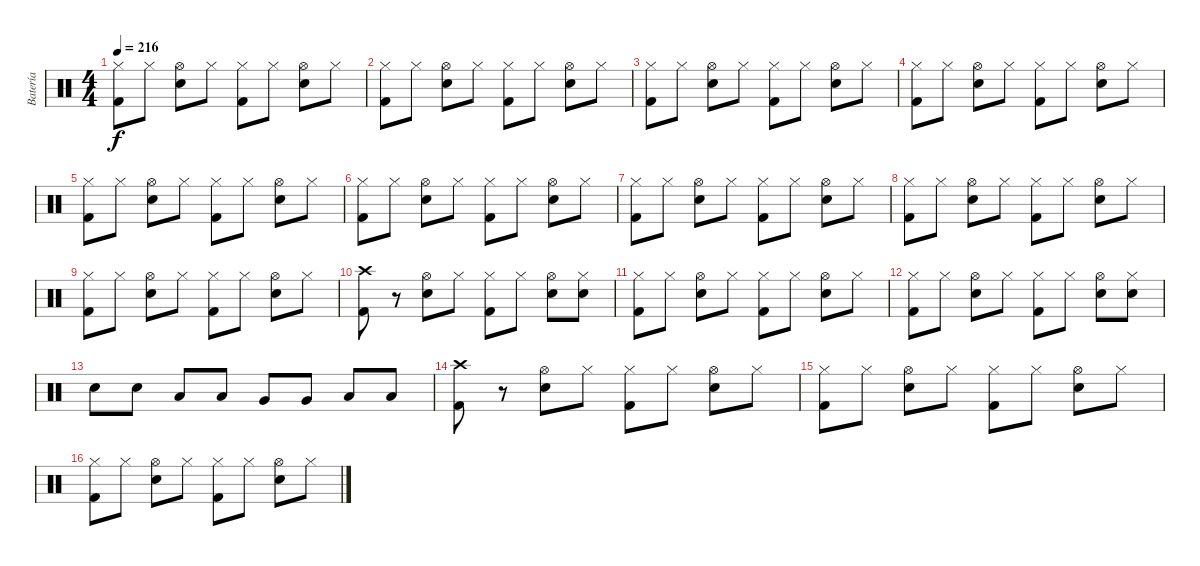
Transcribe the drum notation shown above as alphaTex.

\track ("Batería" "Batería") {instrument percussion}
\staff {score}
\articulation defaults
\ts (4 4)
\tempo 216
\clef neutral
\ks c
("Kick (hit) 2" "Hi-Hat (closed)").8{dy f} "Hi-Hat (closed)".8 ("Electric Snare (hit)" "Hi-Hat (open)").8 "Hi-Hat (closed)".8 ("Kick (hit) 2" "Hi-Hat (closed)").8 "Hi-Hat (closed)".8 ("Electric Snare (hit)" "Hi-Hat (open)").8 "Hi-Hat (closed)".8 |
("Kick (hit) 2" "Hi-Hat (closed)").8 "Hi-Hat (closed)".8 ("Electric Snare (hit)" "Hi-Hat (open)").8 "Hi-Hat (closed)".8 ("Kick (hit) 2" "Hi-Hat (closed)").8 "Hi-Hat (closed)".8 ("Electric Snare (hit)" "Hi-Hat (open)").8 "Hi-Hat (closed)".8 |
("Kick (hit) 2" "Hi-Hat (closed)").8 "Hi-Hat (closed)".8 ("Electric Snare (hit)" "Hi-Hat (open)").8 "Hi-Hat (closed)".8 ("Kick (hit) 2" "Hi-Hat (closed)").8 "Hi-Hat (closed)".8 ("Electric Snare (hit)" "Hi-Hat (open)").8 "Hi-Hat (closed)".8 |
("Kick (hit) 2" "Hi-Hat (closed)").8 "Hi-Hat (closed)".8 ("Electric Snare (hit)" "Hi-Hat (open)").8 "Hi-Hat (closed)".8 ("Kick (hit) 2" "Hi-Hat (closed)").8 "Hi-Hat (closed)".8 ("Electric Snare (hit)" "Hi-Hat (open)").8 "Hi-Hat (closed)".8 |
("Kick (hit) 2" "Hi-Hat (closed)").8 "Hi-Hat (closed)".8 ("Electric Snare (hit)" "Hi-Hat (open)").8 "Hi-Hat (closed)".8 ("Kick (hit) 2" "Hi-Hat (closed)").8 "Hi-Hat (closed)".8 ("Electric Snare (hit)" "Hi-Hat (open)").8 "Hi-Hat (closed)".8 |
("Kick (hit) 2" "Hi-Hat (closed)").8 "Hi-Hat (closed)".8 ("Electric Snare (hit)" "Hi-Hat (open)").8 "Hi-Hat (closed)".8 ("Kick (hit) 2" "Hi-Hat (closed)").8 "Hi-Hat (closed)".8 ("Electric Snare (hit)" "Hi-Hat (open)").8 "Hi-Hat (closed)".8 |
("Kick (hit) 2" "Hi-Hat (closed)").8 "Hi-Hat (closed)".8 ("Electric Snare (hit)" "Hi-Hat (open)").8 "Hi-Hat (closed)".8 ("Kick (hit) 2" "Hi-Hat (closed)").8 "Hi-Hat (closed)".8 ("Electric Snare (hit)" "Hi-Hat (open)").8 "Hi-Hat (closed)".8 |
("Kick (hit) 2" "Hi-Hat (closed)").8 "Hi-Hat (closed)".8 ("Electric Snare (hit)" "Hi-Hat (open)").8 "Hi-Hat (closed)".8 ("Kick (hit) 2" "Hi-Hat (closed)").8 "Hi-Hat (closed)".8 ("Electric Snare (hit)" "Hi-Hat (open)").8 "Hi-Hat (closed)".8 |
("Kick (hit) 2" "Hi-Hat (closed)").8 "Hi-Hat (closed)".8 ("Electric Snare (hit)" "Hi-Hat (open)").8 "Hi-Hat (closed)".8 ("Kick (hit) 2" "Hi-Hat (closed)").8 "Hi-Hat (closed)".8 ("Electric Snare (hit)" "Hi-Hat (open)").8 "Hi-Hat (closed)".8 |
("Kick (hit) 2" "Crash high (hit)").8 r.8 ("Electric Snare (hit)" "Hi-Hat (open)").8 "Hi-Hat (closed)".8 ("Kick (hit) 2" "Hi-Hat (closed)").8 "Hi-Hat (closed)".8 ("Electric Snare (hit)" "Hi-Hat (open)").8 ("Electric Snare (hit)" "Hi-Hat (closed)").8 |
("Kick (hit) 2" "Hi-Hat (closed)").8 "Hi-Hat (closed)".8 ("Electric Snare (hit)" "Hi-Hat (open)").8 "Hi-Hat (closed)".8 ("Kick (hit) 2" "Hi-Hat (closed)").8 "Hi-Hat (closed)".8 ("Electric Snare (hit)" "Hi-Hat (open)").8 "Hi-Hat (closed)".8 |
("Kick (hit) 2" "Hi-Hat (closed)").8 "Hi-Hat (closed)".8 ("Electric Snare (hit)" "Hi-Hat (open)").8 "Hi-Hat (closed)".8 ("Kick (hit) 2" "Hi-Hat (closed)").8 "Hi-Hat (closed)".8 ("Electric Snare (hit)" "Hi-Hat (open)").8 ("Electric Snare (hit)" "Hi-Hat (closed)").8 |
"Electric Snare (hit)".8 "Electric Snare (hit)".8 "Low Tom (hit)".8 "Low Tom (hit)".8 "Very Low Tom (hit)".8 "Very Low Tom (hit)".8 "Low Floor Tom (hit)".8 "Low Floor Tom (hit)".8 |
("Kick (hit) 2" "Crash high (hit)").8 r.8 ("Electric Snare (hit)" "Hi-Hat (open)").8 "Hi-Hat (closed)".8 ("Kick (hit) 2" "Hi-Hat (closed)").8 "Hi-Hat (closed)".8 ("Electric Snare (hit)" "Hi-Hat (open)").8 "Hi-Hat (closed)".8 |
("Kick (hit) 2" "Hi-Hat (closed)").8 "Hi-Hat (closed)".8 ("Electric Snare (hit)" "Hi-Hat (open)").8 "Hi-Hat (closed)".8 ("Kick (hit) 2" "Hi-Hat (closed)").8 "Hi-Hat (closed)".8 ("Electric Snare (hit)" "Hi-Hat (open)").8 "Hi-Hat (closed)".8 |
("Kick (hit) 2" "Hi-Hat (closed)").8 "Hi-Hat (closed)".8 ("Electric Snare (hit)" "Hi-Hat (open)").8 "Hi-Hat (closed)".8 ("Kick (hit) 2" "Hi-Hat (closed)").8 "Hi-Hat (closed)".8 ("Electric Snare (hit)" "Hi-Hat (open)").8 "Hi-Hat (closed)".8
